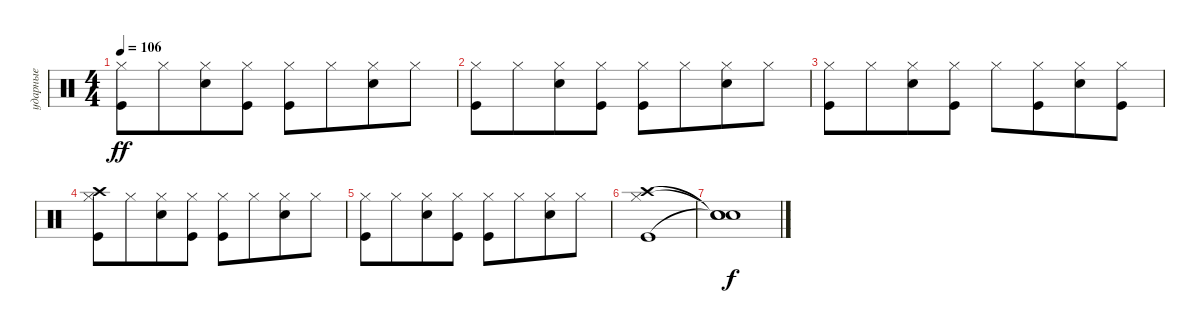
\track ("ударные" "ударные") {instrument percussion}
\staff {score}
\articulation defaults
\ts (4 4)
\tempo 106
\clef neutral
\ks aminor
("Hi-Hat (closed)" "Kick (hit)").8{dy ff} "Hi-Hat (closed)".8{beam merge} ("Hi-Hat (closed)" "Snare (hit) 2").8 ("Hi-Hat (closed)" "Kick (hit)").8 ("Hi-Hat (closed)" "Kick (hit)").8 "Hi-Hat (closed)".8{beam merge} ("Hi-Hat (closed)" "Snare (hit) 2").8 "Hi-Hat (closed)".8 |
("Hi-Hat (closed)" "Kick (hit)").8 "Hi-Hat (closed)".8{beam merge} ("Hi-Hat (closed)" "Snare (hit) 2").8 ("Hi-Hat (closed)" "Kick (hit)").8 ("Hi-Hat (closed)" "Kick (hit)").8 "Hi-Hat (closed)".8{beam merge} ("Hi-Hat (closed)" "Snare (hit) 2").8 "Hi-Hat (closed)".8 |
("Hi-Hat (closed)" "Kick (hit)").8 "Hi-Hat (closed)".8{beam merge} ("Hi-Hat (closed)" "Snare (hit) 2").8 ("Hi-Hat (closed)" "Kick (hit)").8 "Hi-Hat (closed)".8 ("Hi-Hat (closed)" "Kick (hit)").8{beam merge} ("Hi-Hat (closed)" "Snare (hit) 2").8 ("Hi-Hat (closed)" "Kick (hit)").8 |
("Hi-Hat (closed)" "Crash high (hit)" "Kick (hit)").8 "Hi-Hat (closed)".8{beam merge} ("Hi-Hat (closed)" "Snare (hit) 2").8 ("Hi-Hat (closed)" "Kick (hit)").8 ("Hi-Hat (closed)" "Kick (hit)").8 "Hi-Hat (closed)".8{beam merge} ("Hi-Hat (closed)" "Snare (hit) 2").8 "Hi-Hat (closed)".8 |
("Hi-Hat (closed)" "Kick (hit)").8 "Hi-Hat (closed)".8{beam merge} ("Hi-Hat (closed)" "Snare (hit) 2").8 ("Hi-Hat (closed)" "Kick (hit)").8 ("Hi-Hat (closed)" "Kick (hit)").8 "Hi-Hat (closed)".8{beam merge} ("Hi-Hat (closed)" "Snare (hit) 2").8 "Hi-Hat (closed)".8 |
("Hi-Hat (closed)" "Crash high (hit)" "Kick (hit)").1 |
("Snare (hit)"{t} "Snare (hit)"{t} "Snare (hit)"{t}).1{dy f}
